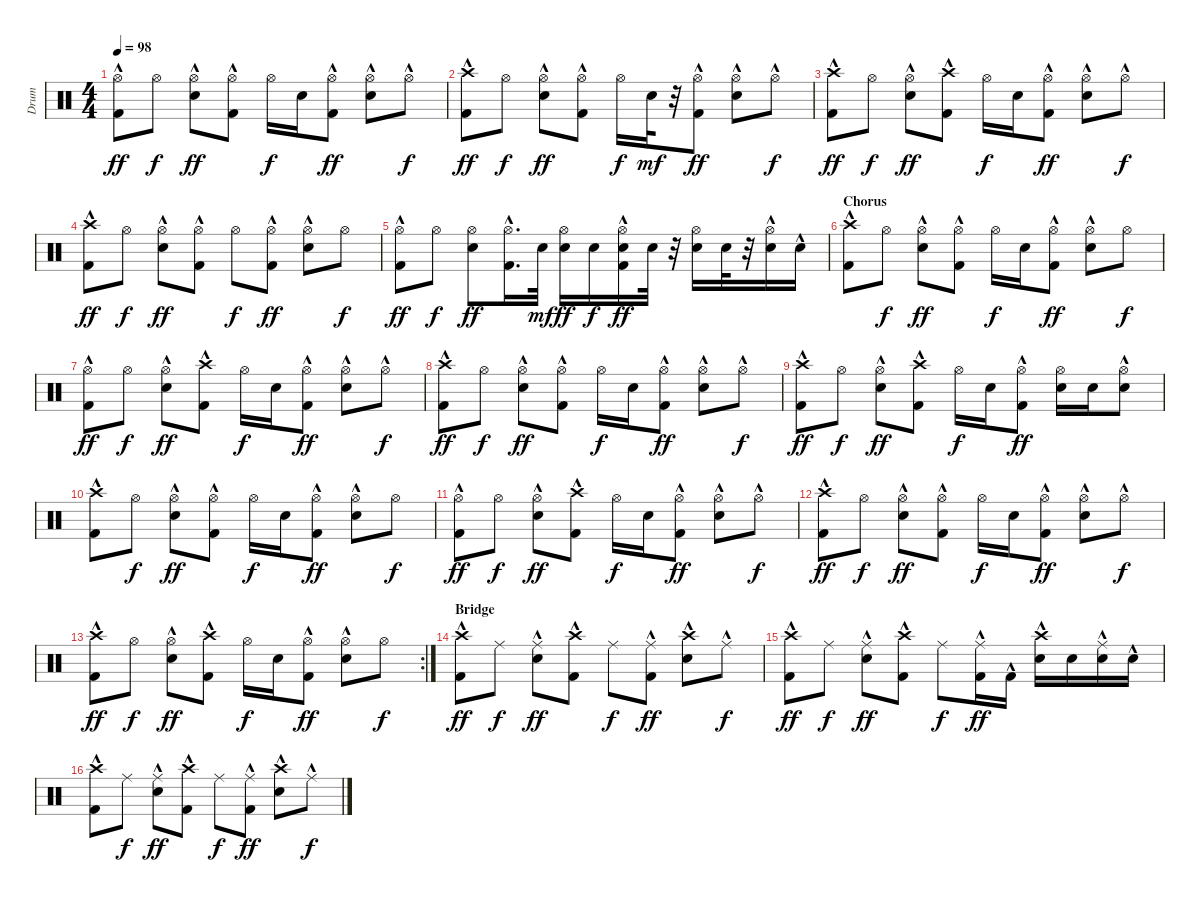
\track ("Drum" "Drum") {instrument percussion}
\staff {score}
\articulation defaults
\ts (4 4)
\tempo 98
\clef neutral
\ks c
("Kick (hit) 2"{hac} "Hi-Hat (open)").8{dy ff} "Hi-Hat (open)".8{dy f} ("Hi-Hat (open)" "Electric Snare (hit)"{hac}).8{dy ff} ("Hi-Hat (open)" "Kick (hit) 2"{hac}).8 "Hi-Hat (open)".16{dy f} "Electric Snare (hit)".16 ("Hi-Hat (open)" "Kick (hit) 2"{hac}).8{dy ff} ("Electric Snare (hit)"{hac} "Hi-Hat (open)").8 "Hi-Hat (open)"{hac}.8{dy f} |
("Crash high (hit)"{hac} "Kick (hit) 2"{hac}).8{dy ff} "Hi-Hat (open)".8{dy f} ("Electric Snare (hit)"{hac} "Hi-Hat (open)").8{dy ff} ("Hi-Hat (open)" "Kick (hit) 2"{hac}).8 "Hi-Hat (open)".16{dy f} "Electric Snare (hit)".32{dy mf} r.32 ("Hi-Hat (open)" "Kick (hit) 2"{hac}).8{dy ff} ("Hi-Hat (open)" "Electric Snare (hit)"{hac}).8 "Hi-Hat (open)"{hac}.8{dy f} |
("Kick (hit) 2"{hac} "Crash high (hit)"{hac}).8{dy ff} "Hi-Hat (open)".8{dy f} ("Hi-Hat (open)"{hac} "Electric Snare (hit)"{hac}).8{dy ff} ("Crash high (hit)"{hac} "Kick (hit) 2"{hac}).8 "Hi-Hat (open)".16{dy f} "Electric Snare (hit)".16 ("Hi-Hat (open)" "Kick (hit) 2"{hac}).8{dy ff} ("Electric Snare (hit)"{hac} "Hi-Hat (open)").8 "Hi-Hat (open)"{hac}.8{dy f} |
("Crash high (hit)"{hac} "Kick (hit) 2"{hac}).8{dy ff} "Hi-Hat (open)".8{dy f} ("Electric Snare (hit)"{hac} "Hi-Hat (open)").8{dy ff} ("Hi-Hat (open)" "Kick (hit) 2"{hac}).8 "Hi-Hat (open)".8{dy f} ("Hi-Hat (open)" "Kick (hit) 2"{hac}).8{dy ff} ("Hi-Hat (open)" "Electric Snare (hit)"{hac}).8 "Hi-Hat (open)".8{dy f} |
("Kick (hit) 2"{hac} "Hi-Hat (open)").8{dy ff} "Hi-Hat (open)".8{dy f} ("Hi-Hat (open)" "Electric Snare (hit)").8{dy ff} ("Hi-Hat (open)" "Kick (hit) 2"{hac}).16{d} "Electric Snare (hit)".32{dy mf} ("Hi-Hat (open)" "Electric Snare (hit)").16{dy ff} "Electric Snare (hit)".16{dy f} ("Hi-Hat (open)" "Kick (hit) 2"{hac} "Electric Snare (hit)").16{dy ff} "Electric Snare (hit)".32 r.32 ("Electric Snare (hit)" "Hi-Hat (open)").16 "Electric Snare (hit)".32 r.32 ("Electric Snare (hit)" "Hi-Hat (open)"{hac}).16 "Electric Snare (hit)"{hac}.16 |
\section ("" "Chorus")
("Crash high (hit)"{hac} "Kick (hit) 2"{hac}).8 "Hi-Hat (open)".8{dy f} ("Electric Snare (hit)"{hac} "Hi-Hat (open)").8{dy ff} ("Hi-Hat (open)" "Kick (hit) 2"{hac}).8 "Hi-Hat (open)".16{dy f} "Electric Snare (hit)".16 ("Hi-Hat (open)" "Kick (hit) 2"{hac}).8{dy ff} ("Hi-Hat (open)" "Electric Snare (hit)"{hac}).8 "Hi-Hat (open)".8{dy f} |
("Kick (hit) 2"{hac} "Hi-Hat (open)").8{dy ff} "Hi-Hat (open)".8{dy f} ("Hi-Hat (open)"{hac} "Electric Snare (hit)"{hac}).8{dy ff} ("Crash high (hit)"{hac} "Kick (hit) 2"{hac}).8 "Hi-Hat (open)".16{dy f} "Electric Snare (hit)".16 ("Hi-Hat (open)" "Kick (hit) 2"{hac}).8{dy ff} ("Electric Snare (hit)"{hac} "Hi-Hat (open)").8 "Hi-Hat (open)"{hac}.8{dy f} |
("Crash high (hit)"{hac} "Kick (hit) 2"{hac}).8{dy ff} "Hi-Hat (open)".8{dy f} ("Electric Snare (hit)"{hac} "Hi-Hat (open)").8{dy ff} ("Hi-Hat (open)" "Kick (hit) 2"{hac}).8 "Hi-Hat (open)".16{dy f} "Electric Snare (hit)".16 ("Hi-Hat (open)" "Kick (hit) 2"{hac}).8{dy ff} ("Hi-Hat (open)" "Electric Snare (hit)"{hac}).8 "Hi-Hat (open)"{hac}.8{dy f} |
("Kick (hit) 2"{hac} "Crash high (hit)"{hac}).8{dy ff} "Hi-Hat (open)".8{dy f} ("Hi-Hat (open)"{hac} "Electric Snare (hit)"{hac}).8{dy ff} ("Crash high (hit)"{hac} "Kick (hit) 2"{hac}).8 "Hi-Hat (open)".16{dy f} "Electric Snare (hit)".16 ("Hi-Hat (open)" "Kick (hit) 2"{hac}).8{dy ff} ("Electric Snare (hit)" "Hi-Hat (open)").16 "Electric Snare (hit)".16 ("Electric Snare (hit)"{hac} "Hi-Hat (open)"{hac}).8 |
("Kick (hit) 2"{hac} "Crash high (hit)"{hac}).8 "Hi-Hat (open)".8{dy f} ("Hi-Hat (open)" "Electric Snare (hit)"{hac}).8{dy ff} ("Kick (hit) 2"{hac} "Hi-Hat (open)").8 "Hi-Hat (open)".16{dy f} "Electric Snare (hit)".16 ("Kick (hit) 2"{hac} "Hi-Hat (open)").8{dy ff} ("Electric Snare (hit)"{hac} "Hi-Hat (open)").8 "Hi-Hat (open)".8{dy f} |
("Hi-Hat (open)" "Kick (hit) 2"{hac}).8{dy ff} "Hi-Hat (open)".8{dy f} ("Electric Snare (hit)"{hac} "Hi-Hat (open)"{hac}).8{dy ff} ("Kick (hit) 2"{hac} "Crash high (hit)"{hac}).8 "Hi-Hat (open)".16{dy f} "Electric Snare (hit)".16 ("Kick (hit) 2"{hac} "Hi-Hat (open)").8{dy ff} ("Hi-Hat (open)" "Electric Snare (hit)"{hac}).8 "Hi-Hat (open)"{hac}.8{dy f} |
("Kick (hit) 2"{hac} "Crash high (hit)"{hac}).8{dy ff} "Hi-Hat (open)".8{dy f} ("Hi-Hat (open)" "Electric Snare (hit)"{hac}).8{dy ff} ("Kick (hit) 2"{hac} "Hi-Hat (open)").8 "Hi-Hat (open)".16{dy f} "Electric Snare (hit)".16 ("Kick (hit) 2"{hac} "Hi-Hat (open)").8{dy ff} ("Electric Snare (hit)"{hac} "Hi-Hat (open)").8 "Hi-Hat (open)"{hac}.8{dy f} |
\rc 2
("Crash high (hit)"{hac} "Kick (hit) 2"{hac}).8{dy ff} "Hi-Hat (open)".8{dy f} ("Electric Snare (hit)"{hac} "Hi-Hat (open)"{hac}).8{dy ff} ("Kick (hit) 2"{hac} "Crash high (hit)"{hac}).8 "Hi-Hat (open)".16{dy f} "Electric Snare (hit)".16 ("Kick (hit) 2"{hac} "Hi-Hat (open)").8{dy ff} ("Hi-Hat (open)" "Electric Snare (hit)"{hac}).8 "Hi-Hat (open)".8{dy f} |
\section ("" "Bridge")
("Crash high (hit)"{hac} "Kick (hit) 2"{hac}).8{dy ff} "Ride (middle)".8{dy f} ("Electric Snare (hit)"{hac} "Ride (middle)"{hac}).8{dy ff} ("Crash high (hit)"{hac} "Kick (hit) 2"{hac}).8 "Ride (middle)".8{dy f} ("Ride (middle)"{hac} "Kick (hit) 2"{hac}).8{dy ff} ("Crash high (hit)"{hac} "Electric Snare (hit)"{hac}).8 "Ride (middle)"{hac}.8{dy f} |
("Crash high (hit)"{hac} "Kick (hit) 2"{hac}).8{dy ff} "Ride (middle)".8{dy f} ("Electric Snare (hit)"{hac} "Ride (middle)"{hac}).8{dy ff} ("Crash high (hit)"{hac} "Kick (hit) 2"{hac}).8 "Ride (middle)".8{dy f} ("Ride (middle)"{hac} "Kick (hit) 2").16{dy ff} "Kick (hit) 2"{hac}.16 ("Crash high (hit)"{hac} "Electric Snare (hit)").16 "Electric Snare (hit)".16 ("Ride (middle)"{hac} "Electric Snare (hit)").16 "Electric Snare (hit)"{hac}.16 |
("Crash high (hit)"{hac} "Kick (hit) 2"{hac}).8 "Ride (middle)".8{dy f} ("Electric Snare (hit)"{hac} "Ride (middle)"{hac}).8{dy ff} ("Crash high (hit)"{hac} "Kick (hit) 2"{hac}).8 "Ride (middle)".8{dy f} ("Ride (middle)"{hac} "Kick (hit) 2"{hac}).8{dy ff} ("Crash high (hit)"{hac} "Electric Snare (hit)"{hac}).8 "Ride (middle)"{hac}.8{dy f}
